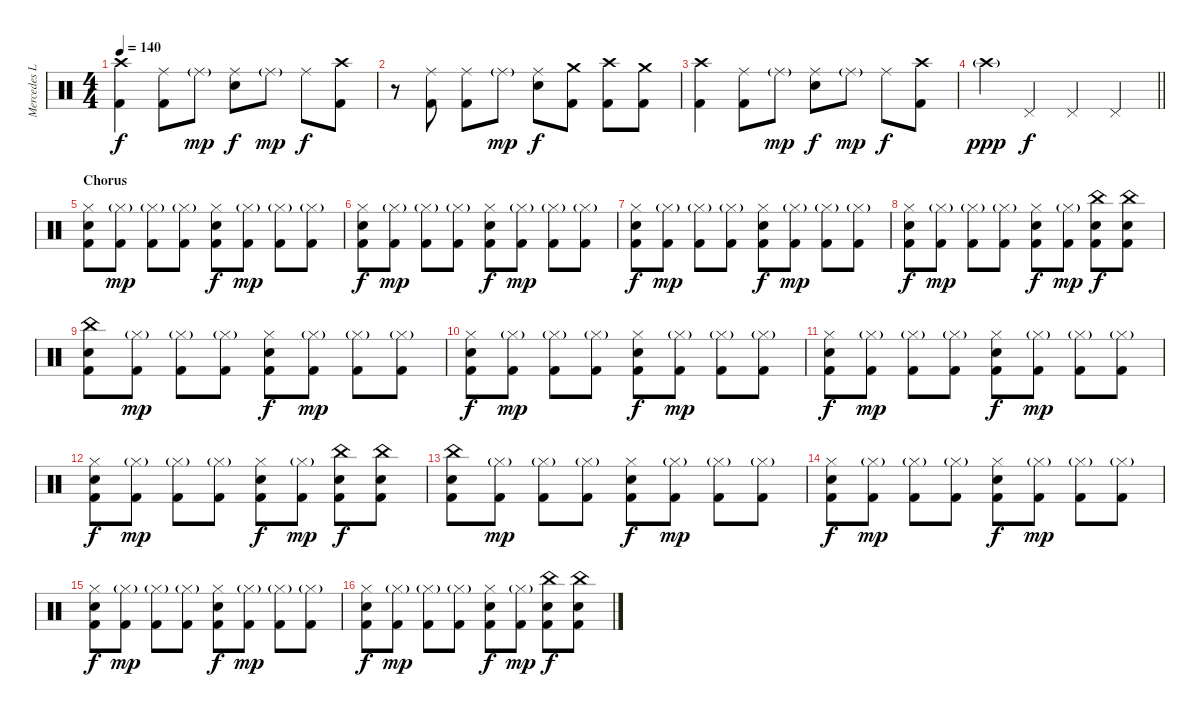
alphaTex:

\track ("Mercedes Lander" "Mercedes L") {instrument percussion}
\staff {score}
\articulation defaults
\ts (4 4)
\tempo 140
\clef neutral
\ks c
("Crash high (hit)" "Kick (hit) 2").4{dy f} ("Ride (middle)" "Kick (hit) 2").8 "Ride (middle)"{g}.8{dy mp} ("Ride (middle)" "Snare (hit) 2").8{dy f} "Ride (middle)"{g}.8{dy mp} "Ride (middle)".8{dy f} ("Crash high (hit)" "Kick (hit) 2").8 |
r.8 ("Ride (middle)" "Kick (hit) 2").8 ("Ride (middle)" "Kick (hit) 2").8 "Ride (middle)"{g}.8{dy mp} ("Ride (middle)" "Snare (hit) 2").8{dy f} ("Crash medium (hit)" "Kick (hit) 2").8 ("Crash high (hit)" "Kick (hit) 2").8 ("Crash medium (hit)" "Kick (hit) 2").8 |
("Crash high (hit)" "Kick (hit) 2").4 ("Ride (middle)" "Kick (hit) 2").8 "Ride (middle)"{g}.8{dy mp} ("Ride (middle)" "Snare (hit) 2").8{dy f} "Ride (middle)"{g}.8{dy mp} "Ride (middle)".8{dy f} ("Crash high (hit)" "Kick (hit) 2").8 |
\barLineRight lightlight "Crash high (hit)"{g}.4{dy ppp} "Pedal Hi-Hat (hit)".4{dy f} "Pedal Hi-Hat (hit)".4 "Pedal Hi-Hat (hit)".4
|
\section ("" "Chorus")
("Hi-Hat (closed)" "Snare (hit) 2" "Kick (hit) 2").8 ("Hi-Hat (closed)"{g} "Kick (hit) 2").8{dy mp} ("Hi-Hat (closed)"{g} "Kick (hit) 2").8 ("Hi-Hat (closed)"{g} "Kick (hit) 2").8 ("Hi-Hat (closed)" "Snare (hit) 2" "Kick (hit) 2").8{dy f} ("Hi-Hat (closed)"{g} "Kick (hit) 2").8{dy mp} ("Hi-Hat (closed)"{g} "Kick (hit) 2").8 ("Hi-Hat (closed)"{g} "Kick (hit) 2").8 |
("Hi-Hat (closed)" "Snare (hit) 2" "Kick (hit) 2").8{dy f} ("Hi-Hat (closed)"{g} "Kick (hit) 2").8{dy mp} ("Hi-Hat (closed)"{g} "Kick (hit) 2").8 ("Hi-Hat (closed)"{g} "Kick (hit) 2").8 ("Hi-Hat (closed)" "Snare (hit) 2" "Kick (hit) 2").8{dy f} ("Hi-Hat (closed)"{g} "Kick (hit) 2").8{dy mp} ("Hi-Hat (closed)"{g} "Kick (hit) 2").8 ("Hi-Hat (closed)"{g} "Kick (hit) 2").8 |
("Hi-Hat (closed)" "Snare (hit) 2" "Kick (hit) 2").8{dy f} ("Hi-Hat (closed)"{g} "Kick (hit) 2").8{dy mp} ("Hi-Hat (closed)"{g} "Kick (hit) 2").8 ("Hi-Hat (closed)"{g} "Kick (hit) 2").8 ("Hi-Hat (closed)" "Snare (hit) 2" "Kick (hit) 2").8{dy f} ("Hi-Hat (closed)"{g} "Kick (hit) 2").8{dy mp} ("Hi-Hat (closed)"{g} "Kick (hit) 2").8 ("Hi-Hat (closed)"{g} "Kick (hit) 2").8 |
("Hi-Hat (closed)" "Snare (hit) 2" "Kick (hit) 2").8{dy f} ("Hi-Hat (closed)"{g} "Kick (hit) 2").8{dy mp} ("Hi-Hat (closed)"{g} "Kick (hit) 2").8 ("Hi-Hat (closed)"{g} "Kick (hit) 2").8 ("Hi-Hat (closed)" "Snare (hit) 2" "Kick (hit) 2").8{dy f} ("Hi-Hat (closed)"{g} "Kick (hit) 2").8{dy mp} ("China (hit)" "Snare (hit) 2" "Kick (hit) 2").8{dy f} ("China (hit)" "Snare (hit) 2" "Kick (hit) 2").8 |
("China (hit)" "Snare (hit) 2" "Kick (hit) 2").8 ("Hi-Hat (closed)"{g} "Kick (hit) 2").8{dy mp} ("Hi-Hat (closed)"{g} "Kick (hit) 2").8 ("Hi-Hat (closed)"{g} "Kick (hit) 2").8 ("Hi-Hat (closed)" "Snare (hit) 2" "Kick (hit) 2").8{dy f} ("Hi-Hat (closed)"{g} "Kick (hit) 2").8{dy mp} ("Hi-Hat (closed)"{g} "Kick (hit) 2").8 ("Hi-Hat (closed)"{g} "Kick (hit) 2").8 |
("Hi-Hat (closed)" "Snare (hit) 2" "Kick (hit) 2").8{dy f} ("Hi-Hat (closed)"{g} "Kick (hit) 2").8{dy mp} ("Hi-Hat (closed)"{g} "Kick (hit) 2").8 ("Hi-Hat (closed)"{g} "Kick (hit) 2").8 ("Hi-Hat (closed)" "Snare (hit) 2" "Kick (hit) 2").8{dy f} ("Hi-Hat (closed)"{g} "Kick (hit) 2").8{dy mp} ("Hi-Hat (closed)"{g} "Kick (hit) 2").8 ("Hi-Hat (closed)"{g} "Kick (hit) 2").8 |
("Hi-Hat (closed)" "Snare (hit) 2" "Kick (hit) 2").8{dy f} ("Hi-Hat (closed)"{g} "Kick (hit) 2").8{dy mp} ("Hi-Hat (closed)"{g} "Kick (hit) 2").8 ("Hi-Hat (closed)"{g} "Kick (hit) 2").8 ("Hi-Hat (closed)" "Snare (hit) 2" "Kick (hit) 2").8{dy f} ("Hi-Hat (closed)"{g} "Kick (hit) 2").8{dy mp} ("Hi-Hat (closed)"{g} "Kick (hit) 2").8 ("Hi-Hat (closed)"{g} "Kick (hit) 2").8 |
("Hi-Hat (closed)" "Snare (hit) 2" "Kick (hit) 2").8{dy f} ("Hi-Hat (closed)"{g} "Kick (hit) 2").8{dy mp} ("Hi-Hat (closed)"{g} "Kick (hit) 2").8 ("Hi-Hat (closed)"{g} "Kick (hit) 2").8 ("Hi-Hat (closed)" "Snare (hit) 2" "Kick (hit) 2").8{dy f} ("Hi-Hat (closed)"{g} "Kick (hit) 2").8{dy mp} ("China (hit)" "Snare (hit) 2" "Kick (hit) 2").8{dy f} ("China (hit)" "Snare (hit) 2" "Kick (hit) 2").8 |
("China (hit)" "Snare (hit) 2" "Kick (hit) 2").8 ("Hi-Hat (closed)"{g} "Kick (hit) 2").8{dy mp} ("Hi-Hat (closed)"{g} "Kick (hit) 2").8 ("Hi-Hat (closed)"{g} "Kick (hit) 2").8 ("Hi-Hat (closed)" "Snare (hit) 2" "Kick (hit) 2").8{dy f} ("Hi-Hat (closed)"{g} "Kick (hit) 2").8{dy mp} ("Hi-Hat (closed)"{g} "Kick (hit) 2").8 ("Hi-Hat (closed)"{g} "Kick (hit) 2").8 |
("Hi-Hat (closed)" "Snare (hit) 2" "Kick (hit) 2").8{dy f} ("Hi-Hat (closed)"{g} "Kick (hit) 2").8{dy mp} ("Hi-Hat (closed)"{g} "Kick (hit) 2").8 ("Hi-Hat (closed)"{g} "Kick (hit) 2").8 ("Hi-Hat (closed)" "Snare (hit) 2" "Kick (hit) 2").8{dy f} ("Hi-Hat (closed)"{g} "Kick (hit) 2").8{dy mp} ("Hi-Hat (closed)"{g} "Kick (hit) 2").8 ("Hi-Hat (closed)"{g} "Kick (hit) 2").8 |
("Hi-Hat (closed)" "Snare (hit) 2" "Kick (hit) 2").8{dy f} ("Hi-Hat (closed)"{g} "Kick (hit) 2").8{dy mp} ("Hi-Hat (closed)"{g} "Kick (hit) 2").8 ("Hi-Hat (closed)"{g} "Kick (hit) 2").8 ("Hi-Hat (closed)" "Snare (hit) 2" "Kick (hit) 2").8{dy f} ("Hi-Hat (closed)"{g} "Kick (hit) 2").8{dy mp} ("Hi-Hat (closed)"{g} "Kick (hit) 2").8 ("Hi-Hat (closed)"{g} "Kick (hit) 2").8 |
("Hi-Hat (closed)" "Snare (hit) 2" "Kick (hit) 2").8{dy f} ("Hi-Hat (closed)"{g} "Kick (hit) 2").8{dy mp} ("Hi-Hat (closed)"{g} "Kick (hit) 2").8 ("Hi-Hat (closed)"{g} "Kick (hit) 2").8 ("Hi-Hat (closed)" "Snare (hit) 2" "Kick (hit) 2").8{dy f} ("Hi-Hat (closed)"{g} "Kick (hit) 2").8{dy mp} ("China (hit)" "Snare (hit) 2" "Kick (hit) 2").8{dy f} ("China (hit)" "Snare (hit) 2" "Kick (hit) 2").8
